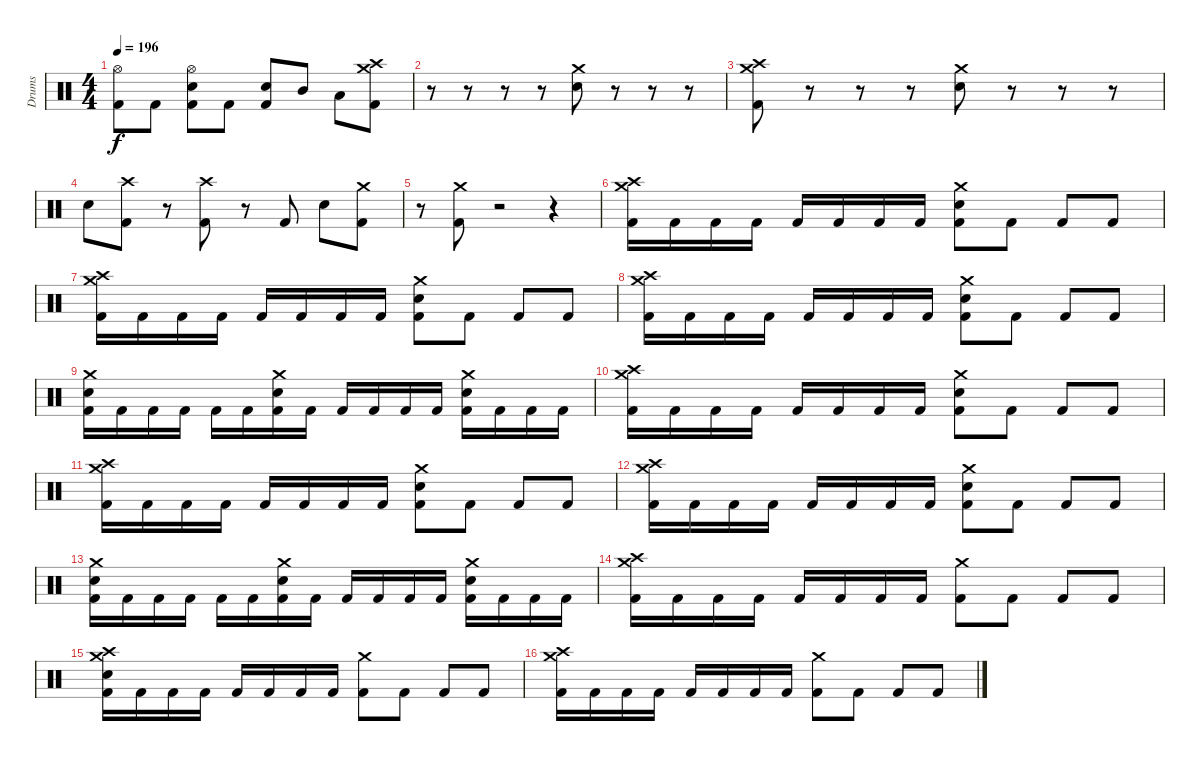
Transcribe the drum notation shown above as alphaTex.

\track ("Drums" "Drums") {instrument percussion}
\staff {score}
\articulation defaults
\ts (4 4)
\tempo 196
\clef neutral
\ks c
("Hi-Hat (open)" "Kick (hit) 2").8{dy f} "Kick (hit) 2".8 ("Hi-Hat (open)" "Snare (hit) 2" "Kick (hit) 2").8 "Kick (hit) 2".8 ("Snare (hit) 2" "Kick (hit) 2").8 "Mid Tom (hit)".8 "Low Tom (hit)".8 ("Crash high (hit)" "Crash medium (hit)" "Kick (hit) 2").8 |
r.8 r.8 r.8 r.8 ("Crash medium (hit)" "Snare (hit) 2").8 r.8 r.8 r.8 |
("Crash high (hit)" "Crash medium (hit)" "Kick (hit) 2").8 r.8 r.8 r.8 ("Crash medium (hit)" "Snare (hit) 2").8 r.8 r.8 r.8 |
"Snare (hit) 2".8 ("Crash high (hit)" "Kick (hit) 2").8 r.8 ("Crash high (hit)" "Kick (hit) 2").8 r.8 "Kick (hit) 2".8 "Snare (hit) 2".8 ("Crash medium (hit)" "Kick (hit) 2").8 |
r.8 ("Crash medium (hit)" "Kick (hit) 2").8 r.2 r.4 |
("Crash high (hit)" "Crash medium (hit)" "Kick (hit) 2").16 "Kick (hit) 2".16 "Kick (hit) 2".16 "Kick (hit) 2".16 "Kick (hit) 2".16 "Kick (hit) 2".16 "Kick (hit) 2".16 "Kick (hit) 2".16 ("Crash medium (hit)" "Snare (hit) 2" "Kick (hit) 2").8 "Kick (hit) 2".8 "Kick (hit) 2".8 "Kick (hit) 2".8 |
("Crash high (hit)" "Crash medium (hit)" "Kick (hit) 2").16 "Kick (hit) 2".16 "Kick (hit) 2".16 "Kick (hit) 2".16 "Kick (hit) 2".16 "Kick (hit) 2".16 "Kick (hit) 2".16 "Kick (hit) 2".16 ("Crash medium (hit)" "Snare (hit) 2" "Kick (hit) 2").8 "Kick (hit) 2".8 "Kick (hit) 2".8 "Kick (hit) 2".8 |
("Crash high (hit)" "Crash medium (hit)" "Kick (hit) 2").16 "Kick (hit) 2".16 "Kick (hit) 2".16 "Kick (hit) 2".16 "Kick (hit) 2".16 "Kick (hit) 2".16 "Kick (hit) 2".16 "Kick (hit) 2".16 ("Crash medium (hit)" "Snare (hit) 2" "Kick (hit) 2").8 "Kick (hit) 2".8 "Kick (hit) 2".8 "Kick (hit) 2".8 |
("Crash medium (hit)" "Snare (hit) 2" "Kick (hit) 2").16 "Kick (hit) 2".16 "Kick (hit) 2".16 "Kick (hit) 2".16 "Kick (hit) 2".16 "Kick (hit) 2".16 ("Crash medium (hit)" "Snare (hit) 2" "Kick (hit) 2").16 "Kick (hit) 2".16 "Kick (hit) 2".16 "Kick (hit) 2".16 "Kick (hit) 2".16 "Kick (hit) 2".16 ("Crash medium (hit)" "Snare (hit) 2" "Kick (hit) 2").16 "Kick (hit) 2".16 "Kick (hit) 2".16 "Kick (hit) 2".16 |
("Crash high (hit)" "Crash medium (hit)" "Kick (hit) 2").16 "Kick (hit) 2".16 "Kick (hit) 2".16 "Kick (hit) 2".16 "Kick (hit) 2".16 "Kick (hit) 2".16 "Kick (hit) 2".16 "Kick (hit) 2".16 ("Crash medium (hit)" "Snare (hit) 2" "Kick (hit) 2").8 "Kick (hit) 2".8 "Kick (hit) 2".8 "Kick (hit) 2".8 |
("Crash high (hit)" "Crash medium (hit)" "Kick (hit) 2").16 "Kick (hit) 2".16 "Kick (hit) 2".16 "Kick (hit) 2".16 "Kick (hit) 2".16 "Kick (hit) 2".16 "Kick (hit) 2".16 "Kick (hit) 2".16 ("Crash medium (hit)" "Snare (hit) 2" "Kick (hit) 2").8 "Kick (hit) 2".8 "Kick (hit) 2".8 "Kick (hit) 2".8 |
("Crash high (hit)" "Crash medium (hit)" "Kick (hit) 2").16 "Kick (hit) 2".16 "Kick (hit) 2".16 "Kick (hit) 2".16 "Kick (hit) 2".16 "Kick (hit) 2".16 "Kick (hit) 2".16 "Kick (hit) 2".16 ("Crash medium (hit)" "Snare (hit) 2" "Kick (hit) 2").8 "Kick (hit) 2".8 "Kick (hit) 2".8 "Kick (hit) 2".8 |
("Crash medium (hit)" "Snare (hit) 2" "Kick (hit) 2").16 "Kick (hit) 2".16 "Kick (hit) 2".16 "Kick (hit) 2".16 "Kick (hit) 2".16 "Kick (hit) 2".16 ("Crash medium (hit)" "Snare (hit) 2" "Kick (hit) 2").16 "Kick (hit) 2".16 "Kick (hit) 2".16 "Kick (hit) 2".16 "Kick (hit) 2".16 "Kick (hit) 2".16 ("Crash medium (hit)" "Snare (hit) 2" "Kick (hit) 2").16 "Kick (hit) 2".16 "Kick (hit) 2".16 "Kick (hit) 2".16 |
("Crash high (hit)" "Crash medium (hit)" "Kick (hit) 2").16 "Kick (hit) 2".16 "Kick (hit) 2".16 "Kick (hit) 2".16 "Kick (hit) 2".16 "Kick (hit) 2".16 "Kick (hit) 2".16 "Kick (hit) 2".16 ("Crash medium (hit)" "Kick (hit) 2").8 "Kick (hit) 2".8 "Kick (hit) 2".8 "Kick (hit) 2".8 |
("Crash high (hit)" "Crash medium (hit)" "Snare (hit) 2" "Kick (hit) 2").16 "Kick (hit) 2".16 "Kick (hit) 2".16 "Kick (hit) 2".16 "Kick (hit) 2".16 "Kick (hit) 2".16 "Kick (hit) 2".16 "Kick (hit) 2".16 ("Crash medium (hit)" "Kick (hit) 2").8 "Kick (hit) 2".8 "Kick (hit) 2".8 "Kick (hit) 2".8 |
("Crash high (hit)" "Crash medium (hit)" "Kick (hit) 2").16 "Kick (hit) 2".16 "Kick (hit) 2".16 "Kick (hit) 2".16 "Kick (hit) 2".16 "Kick (hit) 2".16 "Kick (hit) 2".16 "Kick (hit) 2".16 ("Crash medium (hit)" "Kick (hit) 2").8 "Kick (hit) 2".8 "Kick (hit) 2".8 "Kick (hit) 2".8
